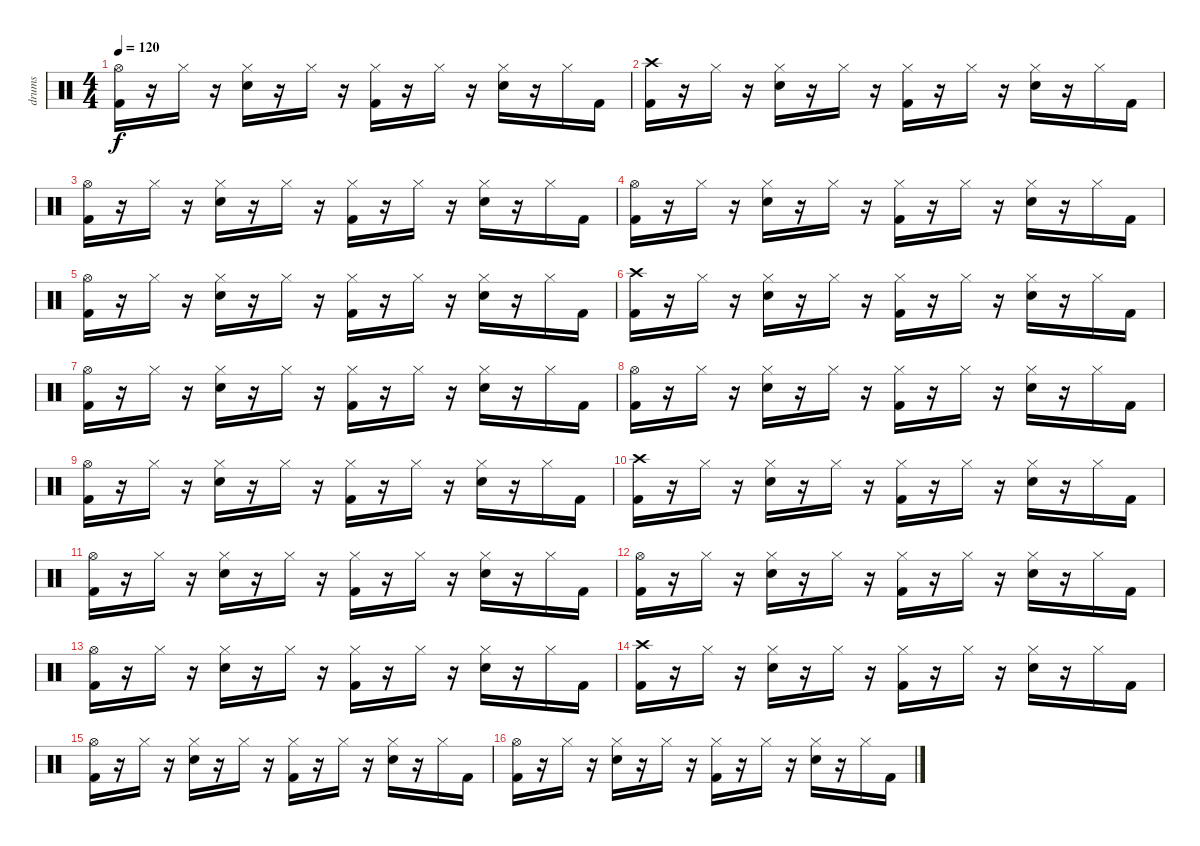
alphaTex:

\track ("drums" "drums") {instrument percussion}
\staff {score}
\articulation defaults
\ts (4 4)
\tempo 120
\clef neutral
\ks c
("Kick (hit) 2" "Hi-Hat (open)").16{dy f} r.16 "Hi-Hat (closed)".16 r.16 ("Snare (hit) 2" "Hi-Hat (closed)").16 r.16 "Hi-Hat (closed)".16 r.16 ("Hi-Hat (closed)" "Kick (hit) 2").16 r.16 "Hi-Hat (closed)".16 r.16 ("Hi-Hat (closed)" "Electric Snare (hit)").16 r.16 "Hi-Hat (closed)".16 "Kick (hit) 2".16 |
("Crash high (hit)" "Kick (hit) 2").16 r.16 "Hi-Hat (closed)".16 r.16 ("Snare (hit) 2" "Hi-Hat (closed)").16 r.16 "Hi-Hat (closed)".16 r.16 ("Kick (hit) 2" "Hi-Hat (closed)").16 r.16 "Hi-Hat (closed)".16 r.16 ("Electric Snare (hit)" "Hi-Hat (closed)").16 r.16 "Hi-Hat (closed)".16 "Kick (hit) 2".16 |
("Hi-Hat (open)" "Kick (hit) 2").16 r.16 "Hi-Hat (closed)".16 r.16 ("Snare (hit) 2" "Hi-Hat (closed)").16 r.16 "Hi-Hat (closed)".16 r.16 ("Kick (hit) 2" "Hi-Hat (closed)").16 r.16 "Hi-Hat (closed)".16 r.16 ("Snare (hit) 2" "Hi-Hat (closed)").16 r.16 "Hi-Hat (closed)".16 "Kick (hit) 2".16 |
("Hi-Hat (open)" "Kick (hit) 2").16 r.16 "Hi-Hat (closed)".16 r.16 ("Snare (hit) 2" "Hi-Hat (closed)").16 r.16 "Hi-Hat (closed)".16 r.16 ("Hi-Hat (closed)" "Kick (hit) 2").16 r.16 "Hi-Hat (closed)".16 r.16 ("Electric Snare (hit)" "Hi-Hat (closed)").16 r.16 "Hi-Hat (closed)".16 "Kick (hit) 2".16 |
("Kick (hit) 2" "Hi-Hat (open)").16 r.16 "Hi-Hat (closed)".16 r.16 ("Snare (hit) 2" "Hi-Hat (closed)").16 r.16 "Hi-Hat (closed)".16 r.16 ("Hi-Hat (closed)" "Kick (hit) 2").16 r.16 "Hi-Hat (closed)".16 r.16 ("Hi-Hat (closed)" "Electric Snare (hit)").16 r.16 "Hi-Hat (closed)".16 "Kick (hit) 2".16 |
("Crash high (hit)" "Kick (hit) 2").16 r.16 "Hi-Hat (closed)".16 r.16 ("Snare (hit) 2" "Hi-Hat (closed)").16 r.16 "Hi-Hat (closed)".16 r.16 ("Kick (hit) 2" "Hi-Hat (closed)").16 r.16 "Hi-Hat (closed)".16 r.16 ("Electric Snare (hit)" "Hi-Hat (closed)").16 r.16 "Hi-Hat (closed)".16 "Kick (hit) 2".16 |
("Hi-Hat (open)" "Kick (hit) 2").16 r.16 "Hi-Hat (closed)".16 r.16 ("Snare (hit) 2" "Hi-Hat (closed)").16 r.16 "Hi-Hat (closed)".16 r.16 ("Kick (hit) 2" "Hi-Hat (closed)").16 r.16 "Hi-Hat (closed)".16 r.16 ("Snare (hit) 2" "Hi-Hat (closed)").16 r.16 "Hi-Hat (closed)".16 "Kick (hit) 2".16 |
("Hi-Hat (open)" "Kick (hit) 2").16 r.16 "Hi-Hat (closed)".16 r.16 ("Snare (hit) 2" "Hi-Hat (closed)").16 r.16 "Hi-Hat (closed)".16 r.16 ("Hi-Hat (closed)" "Kick (hit) 2").16 r.16 "Hi-Hat (closed)".16 r.16 ("Electric Snare (hit)" "Hi-Hat (closed)").16 r.16 "Hi-Hat (closed)".16 "Kick (hit) 2".16 |
("Kick (hit) 2" "Hi-Hat (open)").16 r.16 "Hi-Hat (closed)".16 r.16 ("Snare (hit) 2" "Hi-Hat (closed)").16 r.16 "Hi-Hat (closed)".16 r.16 ("Hi-Hat (closed)" "Kick (hit) 2").16 r.16 "Hi-Hat (closed)".16 r.16 ("Hi-Hat (closed)" "Electric Snare (hit)").16 r.16 "Hi-Hat (closed)".16 "Kick (hit) 2".16 |
("Crash high (hit)" "Kick (hit) 2").16 r.16 "Hi-Hat (closed)".16 r.16 ("Snare (hit) 2" "Hi-Hat (closed)").16 r.16 "Hi-Hat (closed)".16 r.16 ("Kick (hit) 2" "Hi-Hat (closed)").16 r.16 "Hi-Hat (closed)".16 r.16 ("Electric Snare (hit)" "Hi-Hat (closed)").16 r.16 "Hi-Hat (closed)".16 "Kick (hit) 2".16 |
("Hi-Hat (open)" "Kick (hit) 2").16 r.16 "Hi-Hat (closed)".16 r.16 ("Snare (hit) 2" "Hi-Hat (closed)").16 r.16 "Hi-Hat (closed)".16 r.16 ("Kick (hit) 2" "Hi-Hat (closed)").16 r.16 "Hi-Hat (closed)".16 r.16 ("Snare (hit) 2" "Hi-Hat (closed)").16 r.16 "Hi-Hat (closed)".16 "Kick (hit) 2".16 |
("Hi-Hat (open)" "Kick (hit) 2").16 r.16 "Hi-Hat (closed)".16 r.16 ("Snare (hit) 2" "Hi-Hat (closed)").16 r.16 "Hi-Hat (closed)".16 r.16 ("Hi-Hat (closed)" "Kick (hit) 2").16 r.16 "Hi-Hat (closed)".16 r.16 ("Electric Snare (hit)" "Hi-Hat (closed)").16 r.16 "Hi-Hat (closed)".16 "Kick (hit) 2".16 |
("Kick (hit) 2" "Hi-Hat (open)").16 r.16 "Hi-Hat (closed)".16 r.16 ("Snare (hit) 2" "Hi-Hat (closed)").16 r.16 "Hi-Hat (closed)".16 r.16 ("Hi-Hat (closed)" "Kick (hit) 2").16 r.16 "Hi-Hat (closed)".16 r.16 ("Hi-Hat (closed)" "Electric Snare (hit)").16 r.16 "Hi-Hat (closed)".16 "Kick (hit) 2".16 |
("Crash high (hit)" "Kick (hit) 2").16 r.16 "Hi-Hat (closed)".16 r.16 ("Snare (hit) 2" "Hi-Hat (closed)").16 r.16 "Hi-Hat (closed)".16 r.16 ("Kick (hit) 2" "Hi-Hat (closed)").16 r.16 "Hi-Hat (closed)".16 r.16 ("Electric Snare (hit)" "Hi-Hat (closed)").16 r.16 "Hi-Hat (closed)".16 "Kick (hit) 2".16 |
("Hi-Hat (open)" "Kick (hit) 2").16 r.16 "Hi-Hat (closed)".16 r.16 ("Snare (hit) 2" "Hi-Hat (closed)").16 r.16 "Hi-Hat (closed)".16 r.16 ("Kick (hit) 2" "Hi-Hat (closed)").16 r.16 "Hi-Hat (closed)".16 r.16 ("Snare (hit) 2" "Hi-Hat (closed)").16 r.16 "Hi-Hat (closed)".16 "Kick (hit) 2".16 |
("Hi-Hat (open)" "Kick (hit) 2").16 r.16 "Hi-Hat (closed)".16 r.16 ("Snare (hit) 2" "Hi-Hat (closed)").16 r.16 "Hi-Hat (closed)".16 r.16 ("Hi-Hat (closed)" "Kick (hit) 2").16 r.16 "Hi-Hat (closed)".16 r.16 ("Electric Snare (hit)" "Hi-Hat (closed)").16 r.16 "Hi-Hat (closed)".16 "Kick (hit) 2".16
